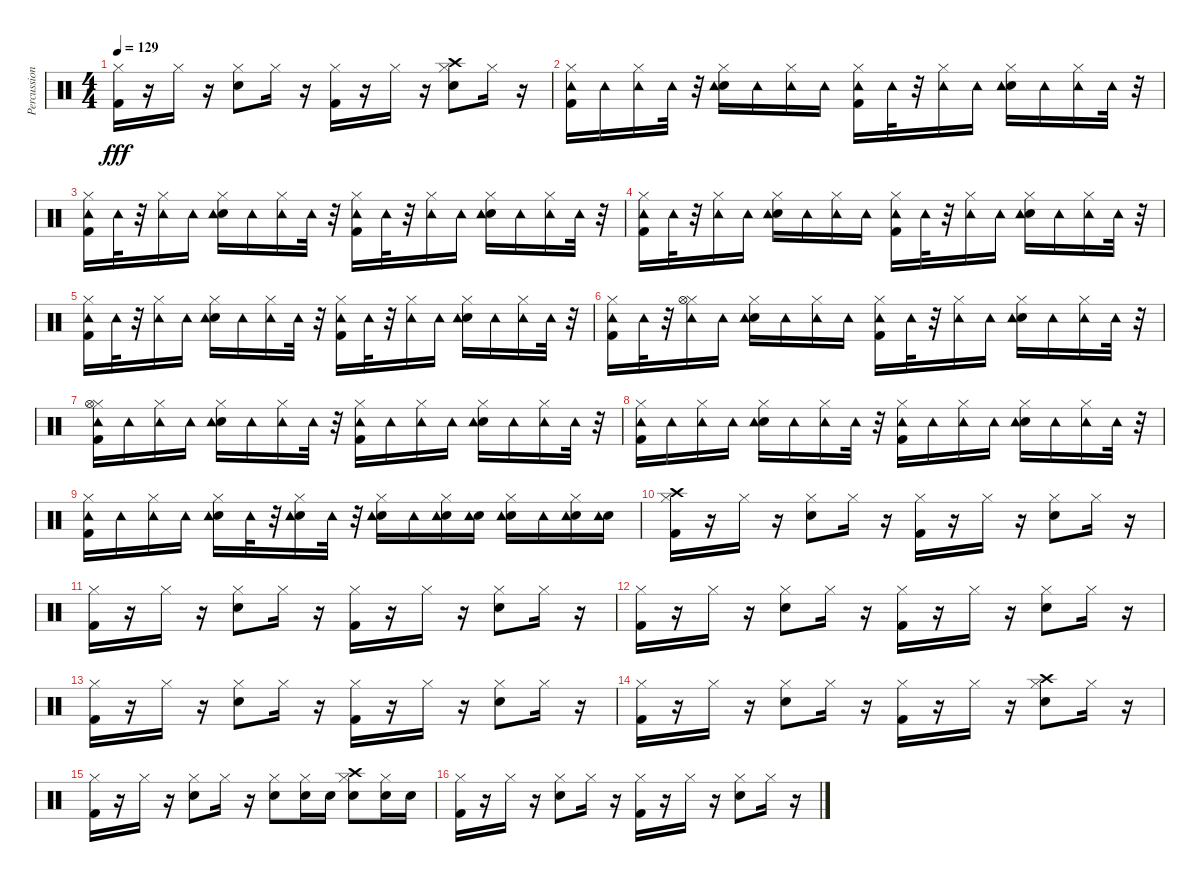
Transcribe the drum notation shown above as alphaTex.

\track ("Percussion" "Percussion") {instrument percussion}
\staff {score}
\articulation defaults
\ts (4 4)
\tempo 129
\clef neutral
\ks c
("Kick (hit) 2" "Hi-Hat (closed)").16{dy fff} r.16 "Hi-Hat (closed)".16 r.16 ("Snare (hit) 2" "Hi-Hat (closed)").8 "Hi-Hat (closed)".16 r.16 ("Kick (hit) 2" "Hi-Hat (closed)").16 r.16 "Hi-Hat (closed)".16 r.16 ("Snare (hit) 2" "Hi-Hat (closed)" "Crash high (hit)").8 "Hi-Hat (closed)".16 r.16 |
("Kick (hit) 2" "Tambourine (hit)" "Hi-Hat (closed)").16 "Tambourine (hit)".16 ("Tambourine (hit)" "Hi-Hat (closed)").16 "Tambourine (hit)".32 r.32 ("Snare (hit) 2" "Tambourine (hit)" "Hi-Hat (closed)").16 "Tambourine (hit)".16 ("Tambourine (hit)" "Hi-Hat (closed)").16 "Tambourine (hit)".16 ("Kick (hit) 2" "Tambourine (hit)" "Hi-Hat (closed)").16 "Tambourine (hit)".32 r.32 ("Tambourine (hit)" "Hi-Hat (closed)").16 "Tambourine (hit)".16 ("Snare (hit) 2" "Tambourine (hit)" "Hi-Hat (closed)").16 "Tambourine (hit)".16 ("Tambourine (hit)" "Hi-Hat (closed)").16 "Tambourine (hit)".32 r.32 |
("Kick (hit) 2" "Tambourine (hit)" "Hi-Hat (closed)").16 "Tambourine (hit)".32 r.32 ("Tambourine (hit)" "Hi-Hat (closed)").16 "Tambourine (hit)".16 ("Snare (hit) 2" "Tambourine (hit)" "Hi-Hat (closed)").16 "Tambourine (hit)".16 ("Tambourine (hit)" "Hi-Hat (closed)").16 "Tambourine (hit)".32 r.32 ("Kick (hit) 2" "Tambourine (hit)" "Hi-Hat (closed)").16 "Tambourine (hit)".32 r.32 ("Tambourine (hit)" "Hi-Hat (closed)").16 "Tambourine (hit)".16 ("Snare (hit) 2" "Tambourine (hit)" "Hi-Hat (closed)").16 "Tambourine (hit)".16 ("Tambourine (hit)" "Hi-Hat (closed)").16 "Tambourine (hit)".32 r.32 |
("Kick (hit) 2" "Tambourine (hit)" "Hi-Hat (closed)").16 "Tambourine (hit)".32 r.32 ("Tambourine (hit)" "Hi-Hat (closed)").16 "Tambourine (hit)".16 ("Snare (hit) 2" "Tambourine (hit)" "Hi-Hat (closed)").16 "Tambourine (hit)".16 ("Tambourine (hit)" "Hi-Hat (closed)").16 "Tambourine (hit)".16 ("Kick (hit) 2" "Tambourine (hit)" "Hi-Hat (closed)").16 "Tambourine (hit)".32 r.32 ("Tambourine (hit)" "Hi-Hat (closed)").16 "Tambourine (hit)".16 ("Snare (hit) 2" "Tambourine (hit)" "Hi-Hat (closed)").16 "Tambourine (hit)".16 ("Tambourine (hit)" "Hi-Hat (closed)").16 "Tambourine (hit)".32 r.32 |
("Kick (hit) 2" "Tambourine (hit)" "Hi-Hat (closed)").16 "Tambourine (hit)".32 r.32 ("Tambourine (hit)" "Hi-Hat (closed)").16 "Tambourine (hit)".16 ("Snare (hit) 2" "Tambourine (hit)" "Hi-Hat (closed)").16 "Tambourine (hit)".16 ("Tambourine (hit)" "Hi-Hat (closed)").16 "Tambourine (hit)".32 r.32 ("Kick (hit) 2" "Tambourine (hit)" "Hi-Hat (closed)").16 "Tambourine (hit)".32 r.32 ("Tambourine (hit)" "Hi-Hat (closed)").16 "Tambourine (hit)".16 ("Snare (hit) 2" "Tambourine (hit)" "Hi-Hat (closed)").16 "Tambourine (hit)".16 ("Tambourine (hit)" "Hi-Hat (closed)").16 "Tambourine (hit)".32 r.32 |
("Kick (hit) 2" "Tambourine (hit)" "Hi-Hat (closed)").16 "Tambourine (hit)".32 r.32 ("Tambourine (hit)" "Hi-Hat (closed)" "Hi-Hat (open)").16 "Tambourine (hit)".16 ("Snare (hit) 2" "Tambourine (hit)" "Hi-Hat (closed)").16 "Tambourine (hit)".16 ("Tambourine (hit)" "Hi-Hat (closed)").16 "Tambourine (hit)".16 ("Kick (hit) 2" "Tambourine (hit)" "Hi-Hat (closed)").16 "Tambourine (hit)".32 r.32 ("Tambourine (hit)" "Hi-Hat (closed)").16 "Tambourine (hit)".16 ("Snare (hit) 2" "Tambourine (hit)" "Hi-Hat (closed)").16 "Tambourine (hit)".16 ("Tambourine (hit)" "Hi-Hat (closed)").16 "Tambourine (hit)".32 r.32 |
("Kick (hit) 2" "Tambourine (hit)" "Hi-Hat (closed)" "Hi-Hat (open)").16 "Tambourine (hit)".16 ("Tambourine (hit)" "Hi-Hat (closed)").16 "Tambourine (hit)".16 ("Snare (hit) 2" "Tambourine (hit)" "Hi-Hat (closed)").16 "Tambourine (hit)".16 ("Tambourine (hit)" "Hi-Hat (closed)").16 "Tambourine (hit)".32 r.32 ("Kick (hit) 2" "Tambourine (hit)" "Hi-Hat (closed)").16 "Tambourine (hit)".16 ("Tambourine (hit)" "Hi-Hat (closed)").16 "Tambourine (hit)".16 ("Snare (hit) 2" "Tambourine (hit)" "Hi-Hat (closed)").16 "Tambourine (hit)".16 ("Tambourine (hit)" "Hi-Hat (closed)").16 "Tambourine (hit)".32 r.32 |
("Kick (hit) 2" "Tambourine (hit)" "Hi-Hat (closed)").16 "Tambourine (hit)".16 ("Tambourine (hit)" "Hi-Hat (closed)").16 "Tambourine (hit)".16 ("Snare (hit) 2" "Tambourine (hit)" "Hi-Hat (closed)").16 "Tambourine (hit)".16 ("Tambourine (hit)" "Hi-Hat (closed)").16 "Tambourine (hit)".32 r.32 ("Kick (hit) 2" "Tambourine (hit)" "Hi-Hat (closed)").16 "Tambourine (hit)".16 ("Tambourine (hit)" "Hi-Hat (closed)").16 "Tambourine (hit)".16 ("Snare (hit) 2" "Tambourine (hit)" "Hi-Hat (closed)").16 "Tambourine (hit)".16 ("Tambourine (hit)" "Hi-Hat (closed)").16 "Tambourine (hit)".32 r.32 |
("Kick (hit) 2" "Tambourine (hit)" "Hi-Hat (closed)").16 "Tambourine (hit)".16 ("Tambourine (hit)" "Hi-Hat (closed)").16 "Tambourine (hit)".16 ("Snare (hit) 2" "Tambourine (hit)" "Hi-Hat (closed)").16 "Tambourine (hit)".32 r.32 ("Snare (hit) 2" "Tambourine (hit)" "Hi-Hat (closed)").16 "Tambourine (hit)".32 r.32 ("Snare (hit) 2" "Tambourine (hit)" "Hi-Hat (closed)").16 "Tambourine (hit)".16 ("Snare (hit) 2" "Tambourine (hit)" "Hi-Hat (closed)").16 ("Snare (hit) 2" "Tambourine (hit)").16 ("Snare (hit) 2" "Tambourine (hit)" "Hi-Hat (closed)").16 "Tambourine (hit)".16 ("Snare (hit) 2" "Tambourine (hit)" "Hi-Hat (closed)").16 ("Snare (hit) 2" "Tambourine (hit)").16 |
("Kick (hit) 2" "Hi-Hat (closed)" "Crash high (hit)").16 r.16 "Hi-Hat (closed)".16 r.16 ("Snare (hit) 2" "Hi-Hat (closed)").8 "Hi-Hat (closed)".16 r.16 ("Kick (hit) 2" "Hi-Hat (closed)").16 r.16 "Hi-Hat (closed)".16 r.16 ("Snare (hit) 2" "Hi-Hat (closed)").8 "Hi-Hat (closed)".16 r.16 |
("Kick (hit) 2" "Hi-Hat (closed)").16 r.16 "Hi-Hat (closed)".16 r.16 ("Snare (hit) 2" "Hi-Hat (closed)").8 "Hi-Hat (closed)".16 r.16 ("Kick (hit) 2" "Hi-Hat (closed)").16 r.16 "Hi-Hat (closed)".16 r.16 ("Snare (hit) 2" "Hi-Hat (closed)").8 "Hi-Hat (closed)".16 r.16 |
("Kick (hit) 2" "Hi-Hat (closed)").16 r.16 "Hi-Hat (closed)".16 r.16 ("Snare (hit) 2" "Hi-Hat (closed)").8 "Hi-Hat (closed)".16 r.16 ("Kick (hit) 2" "Hi-Hat (closed)").16 r.16 "Hi-Hat (closed)".16 r.16 ("Snare (hit) 2" "Hi-Hat (closed)").8 "Hi-Hat (closed)".16 r.16 |
("Kick (hit) 2" "Hi-Hat (closed)").16 r.16 "Hi-Hat (closed)".16 r.16 ("Snare (hit) 2" "Hi-Hat (closed)").8 "Hi-Hat (closed)".16 r.16 ("Kick (hit) 2" "Hi-Hat (closed)").16 r.16 "Hi-Hat (closed)".16 r.16 ("Snare (hit) 2" "Hi-Hat (closed)").8 "Hi-Hat (closed)".16 r.16 |
("Kick (hit) 2" "Hi-Hat (closed)").16 r.16 "Hi-Hat (closed)".16 r.16 ("Snare (hit) 2" "Hi-Hat (closed)").8 "Hi-Hat (closed)".16 r.16 ("Kick (hit) 2" "Hi-Hat (closed)").16 r.16 "Hi-Hat (closed)".16 r.16 ("Snare (hit) 2" "Hi-Hat (closed)" "Crash high (hit)").8 "Hi-Hat (closed)".16 r.16 |
("Kick (hit) 2" "Hi-Hat (closed)").16 r.16 "Hi-Hat (closed)".16 r.16 ("Snare (hit) 2" "Hi-Hat (closed)").8 "Hi-Hat (closed)".16 r.16 ("Snare (hit) 2" "Hi-Hat (closed)").8 ("Snare (hit) 2" "Hi-Hat (closed)").16 "Snare (hit) 2".16 ("Snare (hit) 2" "Hi-Hat (closed)" "Crash high (hit)").8 ("Snare (hit) 2" "Hi-Hat (closed)").16 "Snare (hit) 2".16 |
("Kick (hit) 2" "Hi-Hat (closed)").16 r.16 "Hi-Hat (closed)".16 r.16 ("Snare (hit) 2" "Hi-Hat (closed)").8 "Hi-Hat (closed)".16 r.16 ("Kick (hit) 2" "Hi-Hat (closed)").16 r.16 "Hi-Hat (closed)".16 r.16 ("Snare (hit) 2" "Hi-Hat (closed)").8 "Hi-Hat (closed)".16 r.16
